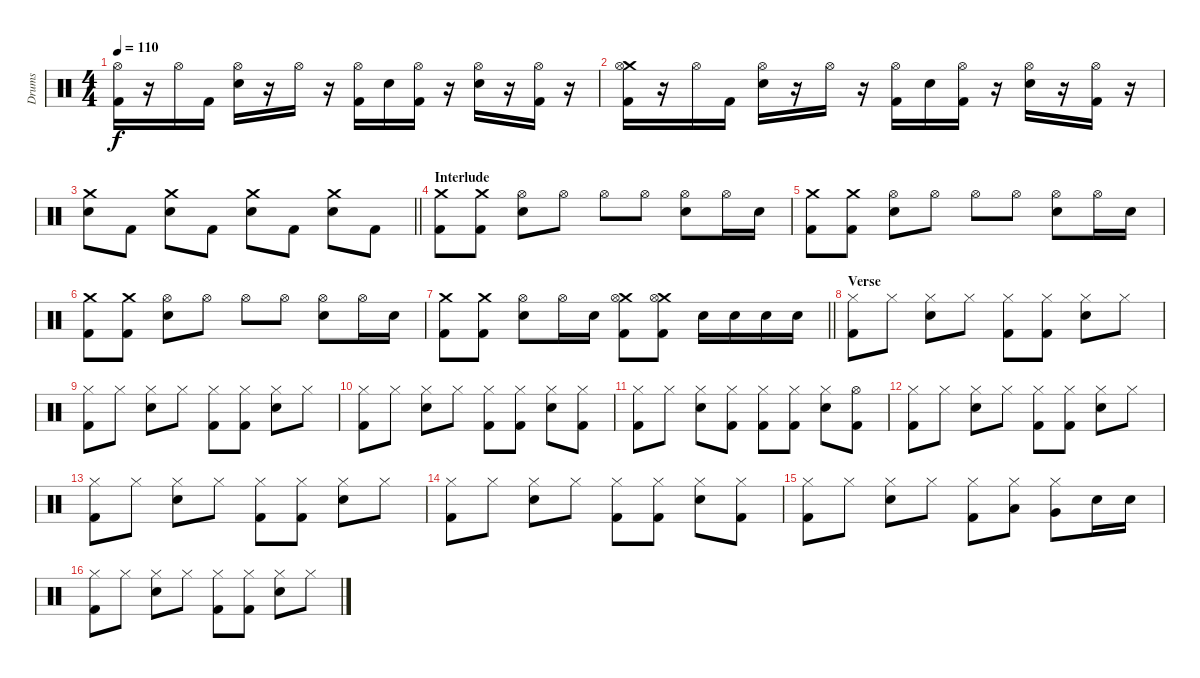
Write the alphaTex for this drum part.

\track ("Drums" "Drums") {instrument percussion}
\staff {score}
\articulation defaults
\ts (4 4)
\tempo 110
\clef neutral
\ks c
("Hi-Hat (open)" "Kick (hit) 2").16{dy f} r.16 "Hi-Hat (open)".16 "Kick (hit) 2".16 ("Hi-Hat (open)" "Electric Snare (hit)").16 r.16 "Hi-Hat (open)".16 r.16 ("Hi-Hat (open)" "Kick (hit) 2").16 "Electric Snare (hit)".16 ("Hi-Hat (open)" "Kick (hit) 2").16 r.16 ("Hi-Hat (open)" "Electric Snare (hit)").16 r.16 ("Hi-Hat (open)" "Kick (hit) 2").16 r.16 |
("Crash medium (hit)" "Hi-Hat (open)" "Kick (hit) 2").16 r.16 "Hi-Hat (open)".16 "Kick (hit) 2".16 ("Hi-Hat (open)" "Electric Snare (hit)").16 r.16 "Hi-Hat (open)".16 r.16 ("Hi-Hat (open)" "Kick (hit) 2").16 "Electric Snare (hit)".16 ("Hi-Hat (open)" "Kick (hit) 2").16 r.16 ("Hi-Hat (open)" "Electric Snare (hit)").16 r.16 ("Hi-Hat (open)" "Kick (hit) 2").16 r.16 |
\barLineRight lightlight
("Crash medium (hit)" "Electric Snare (hit)").8 "Kick (hit) 2".8 ("Crash medium (hit)" "Electric Snare (hit)").8 "Kick (hit) 2".8 ("Crash medium (hit)" "Electric Snare (hit)").8 "Kick (hit) 2".8 ("Crash medium (hit)" "Electric Snare (hit)").8 "Kick (hit) 2".8 |
\section ("" "Interlude")
("Crash medium (hit)" "Kick (hit) 2").8 ("Crash medium (hit)" "Kick (hit) 2").8 ("Hi-Hat (open)" "Electric Snare (hit)").8 "Hi-Hat (open)".8 "Hi-Hat (open)".8 "Hi-Hat (open)".8 ("Hi-Hat (open)" "Electric Snare (hit)").8 "Hi-Hat (open)".16 "Electric Snare (hit)".16 |
("Crash medium (hit)" "Kick (hit) 2").8 ("Crash medium (hit)" "Kick (hit) 2").8 ("Hi-Hat (open)" "Electric Snare (hit)").8 "Hi-Hat (open)".8 "Hi-Hat (open)".8 "Hi-Hat (open)".8 ("Hi-Hat (open)" "Electric Snare (hit)").8 "Hi-Hat (open)".16 "Electric Snare (hit)".16 |
("Crash medium (hit)" "Kick (hit) 2").8 ("Crash medium (hit)" "Kick (hit) 2").8 ("Hi-Hat (open)" "Electric Snare (hit)").8 "Hi-Hat (open)".8 "Hi-Hat (open)".8 "Hi-Hat (open)".8 ("Hi-Hat (open)" "Electric Snare (hit)").8 "Hi-Hat (open)".16 "Electric Snare (hit)".16 |
\barLineRight lightlight
("Crash medium (hit)" "Kick (hit) 2").8 ("Crash medium (hit)" "Kick (hit) 2").8 ("Hi-Hat (open)" "Electric Snare (hit)").8 "Hi-Hat (open)".16 "Electric Snare (hit)".16 ("Crash medium (hit)" "Hi-Hat (open)" "Kick (hit) 2").8 ("Crash medium (hit)" "Hi-Hat (open)" "Kick (hit) 2").8 "Electric Snare (hit)".16 "Electric Snare (hit)".16 "Electric Snare (hit)".16 "Electric Snare (hit)".16 |
\section ("" "Verse")
("Hi-Hat (closed)" "Kick (hit) 2").8 "Hi-Hat (closed)".8 ("Hi-Hat (closed)" "Electric Snare (hit)").8 "Hi-Hat (closed)".8 ("Hi-Hat (closed)" "Kick (hit) 2").8 ("Hi-Hat (closed)" "Kick (hit) 2").8 ("Hi-Hat (closed)" "Electric Snare (hit)").8 "Hi-Hat (closed)".8 |
("Hi-Hat (closed)" "Kick (hit) 2").8 "Hi-Hat (closed)".8 ("Hi-Hat (closed)" "Electric Snare (hit)").8 "Hi-Hat (closed)".8 ("Hi-Hat (closed)" "Kick (hit) 2").8 ("Hi-Hat (closed)" "Kick (hit) 2").8 ("Hi-Hat (closed)" "Electric Snare (hit)").8 "Hi-Hat (closed)".8 |
("Hi-Hat (closed)" "Kick (hit) 2").8 "Hi-Hat (closed)".8 ("Hi-Hat (closed)" "Electric Snare (hit)").8 "Hi-Hat (closed)".8 ("Hi-Hat (closed)" "Kick (hit) 2").8 ("Hi-Hat (closed)" "Kick (hit) 2").8 ("Hi-Hat (closed)" "Electric Snare (hit)").8 ("Hi-Hat (closed)" "Kick (hit) 2").8 |
("Hi-Hat (closed)" "Kick (hit) 2").8 "Hi-Hat (closed)".8 ("Hi-Hat (closed)" "Electric Snare (hit)").8 ("Hi-Hat (closed)" "Kick (hit) 2").8 ("Hi-Hat (closed)" "Kick (hit) 2").8 ("Hi-Hat (closed)" "Kick (hit) 2").8 ("Hi-Hat (closed)" "Electric Snare (hit)").8 ("Hi-Hat (open)" "Kick (hit) 2").8 |
("Hi-Hat (closed)" "Kick (hit) 2").8 "Hi-Hat (closed)".8 ("Hi-Hat (closed)" "Electric Snare (hit)").8 "Hi-Hat (closed)".8 ("Hi-Hat (closed)" "Kick (hit) 2").8 ("Hi-Hat (closed)" "Kick (hit) 2").8 ("Hi-Hat (closed)" "Electric Snare (hit)").8 "Hi-Hat (closed)".8 |
("Hi-Hat (closed)" "Kick (hit) 2").8 "Hi-Hat (closed)".8 ("Hi-Hat (closed)" "Electric Snare (hit)").8 "Hi-Hat (closed)".8 ("Hi-Hat (closed)" "Kick (hit) 2").8 ("Hi-Hat (closed)" "Kick (hit) 2").8 ("Hi-Hat (closed)" "Electric Snare (hit)").8 "Hi-Hat (closed)".8 |
("Hi-Hat (closed)" "Kick (hit) 2").8 "Hi-Hat (closed)".8 ("Hi-Hat (closed)" "Electric Snare (hit)").8 "Hi-Hat (closed)".8 ("Hi-Hat (closed)" "Kick (hit) 2").8 ("Hi-Hat (closed)" "Kick (hit) 2").8 ("Hi-Hat (closed)" "Electric Snare (hit)").8 ("Hi-Hat (closed)" "Kick (hit) 2").8 |
("Hi-Hat (closed)" "Kick (hit) 2").8 "Hi-Hat (closed)".8 ("Hi-Hat (closed)" "Electric Snare (hit)").8 "Hi-Hat (closed)".8 ("Hi-Hat (closed)" "Kick (hit) 2").8 ("Hi-Hat (closed)" "Low Tom (hit)").8 ("Hi-Hat (closed)" "Very Low Tom (hit)").8 "Electric Snare (hit)".16 "Electric Snare (hit)".16 |
("Hi-Hat (closed)" "Kick (hit) 2").8 "Hi-Hat (closed)".8 ("Hi-Hat (closed)" "Electric Snare (hit)").8 "Hi-Hat (closed)".8 ("Hi-Hat (closed)" "Kick (hit) 2").8 ("Hi-Hat (closed)" "Kick (hit) 2").8 ("Hi-Hat (closed)" "Electric Snare (hit)").8 "Hi-Hat (closed)".8
